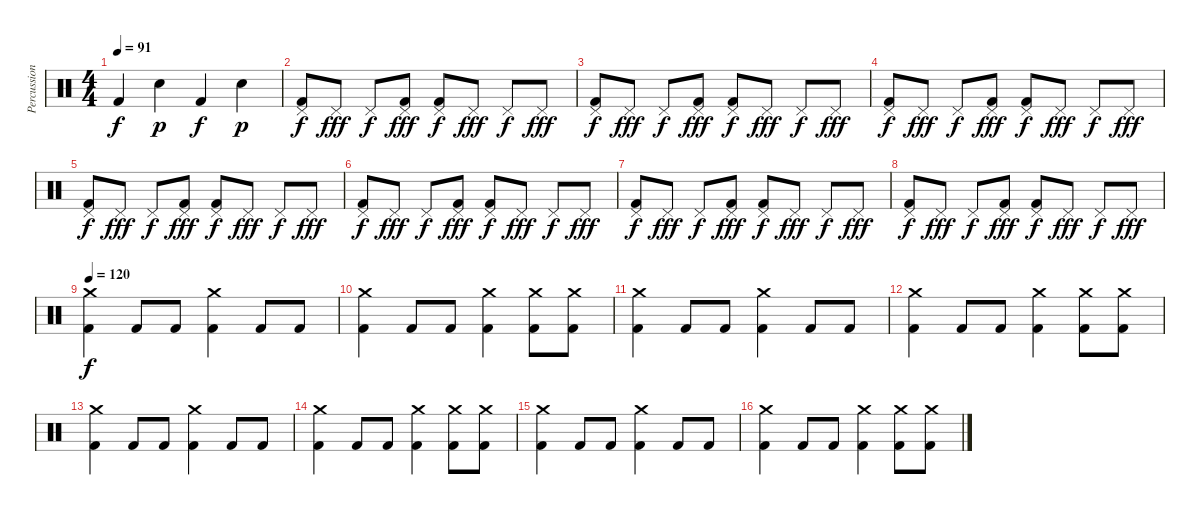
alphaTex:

\track ("Percussions" "Percussion") {instrument percussion}
\staff {score}
\articulation defaults
\ts (4 4)
\tempo 91
\clef neutral
\ks c "Kick (hit) 2".4{dy f} "Electric Snare (hit)".4{dy p} "Kick (hit) 2".4{dy f} "Electric Snare (hit)".4{dy p}
|
("Pedal Hi-Hat (hit)" "Kick (hit) 2").8{dy f} "Pedal Hi-Hat (hit)".8{dy fff} "Pedal Hi-Hat (hit)".8{dy f} ("Pedal Hi-Hat (hit)" "Kick (hit) 2").8{dy fff} ("Pedal Hi-Hat (hit)" "Kick (hit) 2").8{dy f} "Pedal Hi-Hat (hit)".8{dy fff} "Pedal Hi-Hat (hit)".8{dy f} "Pedal Hi-Hat (hit)".8{dy fff} |
("Pedal Hi-Hat (hit)" "Kick (hit) 2").8{dy f} "Pedal Hi-Hat (hit)".8{dy fff} "Pedal Hi-Hat (hit)".8{dy f} ("Pedal Hi-Hat (hit)" "Kick (hit) 2").8{dy fff} ("Pedal Hi-Hat (hit)" "Kick (hit) 2").8{dy f} "Pedal Hi-Hat (hit)".8{dy fff} "Pedal Hi-Hat (hit)".8{dy f} "Pedal Hi-Hat (hit)".8{dy fff} |
("Pedal Hi-Hat (hit)" "Kick (hit) 2").8{dy f} "Pedal Hi-Hat (hit)".8{dy fff} "Pedal Hi-Hat (hit)".8{dy f} ("Pedal Hi-Hat (hit)" "Kick (hit) 2").8{dy fff} ("Pedal Hi-Hat (hit)" "Kick (hit) 2").8{dy f} "Pedal Hi-Hat (hit)".8{dy fff} "Pedal Hi-Hat (hit)".8{dy f} "Pedal Hi-Hat (hit)".8{dy fff} |
("Pedal Hi-Hat (hit)" "Kick (hit) 2").8{dy f} "Pedal Hi-Hat (hit)".8{dy fff} "Pedal Hi-Hat (hit)".8{dy f} ("Pedal Hi-Hat (hit)" "Kick (hit) 2").8{dy fff} ("Pedal Hi-Hat (hit)" "Kick (hit) 2").8{dy f} "Pedal Hi-Hat (hit)".8{dy fff} "Pedal Hi-Hat (hit)".8{dy f} "Pedal Hi-Hat (hit)".8{dy fff} |
("Pedal Hi-Hat (hit)" "Kick (hit) 2").8{dy f} "Pedal Hi-Hat (hit)".8{dy fff} "Pedal Hi-Hat (hit)".8{dy f} ("Pedal Hi-Hat (hit)" "Kick (hit) 2").8{dy fff} ("Pedal Hi-Hat (hit)" "Kick (hit) 2").8{dy f} "Pedal Hi-Hat (hit)".8{dy fff} "Pedal Hi-Hat (hit)".8{dy f} "Pedal Hi-Hat (hit)".8{dy fff} |
("Pedal Hi-Hat (hit)" "Kick (hit) 2").8{dy f} "Pedal Hi-Hat (hit)".8{dy fff} "Pedal Hi-Hat (hit)".8{dy f} ("Pedal Hi-Hat (hit)" "Kick (hit) 2").8{dy fff} ("Pedal Hi-Hat (hit)" "Kick (hit) 2").8{dy f} "Pedal Hi-Hat (hit)".8{dy fff} "Pedal Hi-Hat (hit)".8{dy f} "Pedal Hi-Hat (hit)".8{dy fff} |
("Pedal Hi-Hat (hit)" "Kick (hit) 2").8{dy f} "Pedal Hi-Hat (hit)".8{dy fff} "Pedal Hi-Hat (hit)".8{dy f} ("Pedal Hi-Hat (hit)" "Kick (hit) 2").8{dy fff} ("Pedal Hi-Hat (hit)" "Kick (hit) 2").8{dy f} "Pedal Hi-Hat (hit)".8{dy fff} "Pedal Hi-Hat (hit)".8{dy f} "Pedal Hi-Hat (hit)".8{dy fff} |
\tempo 120
("Crash medium (hit)" "Kick (hit) 2").4{dy f} "Kick (hit) 2".8 "Kick (hit) 2".8 ("Crash medium (hit)" "Kick (hit) 2").4 "Kick (hit) 2".8 "Kick (hit) 2".8 |
("Crash medium (hit)" "Kick (hit) 2").4 "Kick (hit) 2".8 "Kick (hit) 2".8 ("Crash medium (hit)" "Kick (hit) 2").4 ("Crash medium (hit)" "Kick (hit) 2").8 ("Crash medium (hit)" "Kick (hit) 2").8 |
("Crash medium (hit)" "Kick (hit) 2").4 "Kick (hit) 2".8 "Kick (hit) 2".8 ("Crash medium (hit)" "Kick (hit) 2").4 "Kick (hit) 2".8 "Kick (hit) 2".8 |
("Crash medium (hit)" "Kick (hit) 2").4 "Kick (hit) 2".8 "Kick (hit) 2".8 ("Crash medium (hit)" "Kick (hit) 2").4 ("Crash medium (hit)" "Kick (hit) 2").8 ("Crash medium (hit)" "Kick (hit) 2").8 |
("Crash medium (hit)" "Kick (hit) 2").4 "Kick (hit) 2".8 "Kick (hit) 2".8 ("Crash medium (hit)" "Kick (hit) 2").4 "Kick (hit) 2".8 "Kick (hit) 2".8 |
("Crash medium (hit)" "Kick (hit) 2").4 "Kick (hit) 2".8 "Kick (hit) 2".8 ("Crash medium (hit)" "Kick (hit) 2").4 ("Crash medium (hit)" "Kick (hit) 2").8 ("Crash medium (hit)" "Kick (hit) 2").8 |
("Crash medium (hit)" "Kick (hit) 2").4 "Kick (hit) 2".8 "Kick (hit) 2".8 ("Crash medium (hit)" "Kick (hit) 2").4 "Kick (hit) 2".8 "Kick (hit) 2".8 |
("Crash medium (hit)" "Kick (hit) 2").4 "Kick (hit) 2".8 "Kick (hit) 2".8 ("Crash medium (hit)" "Kick (hit) 2").4 ("Crash medium (hit)" "Kick (hit) 2").8 ("Crash medium (hit)" "Kick (hit) 2").8
